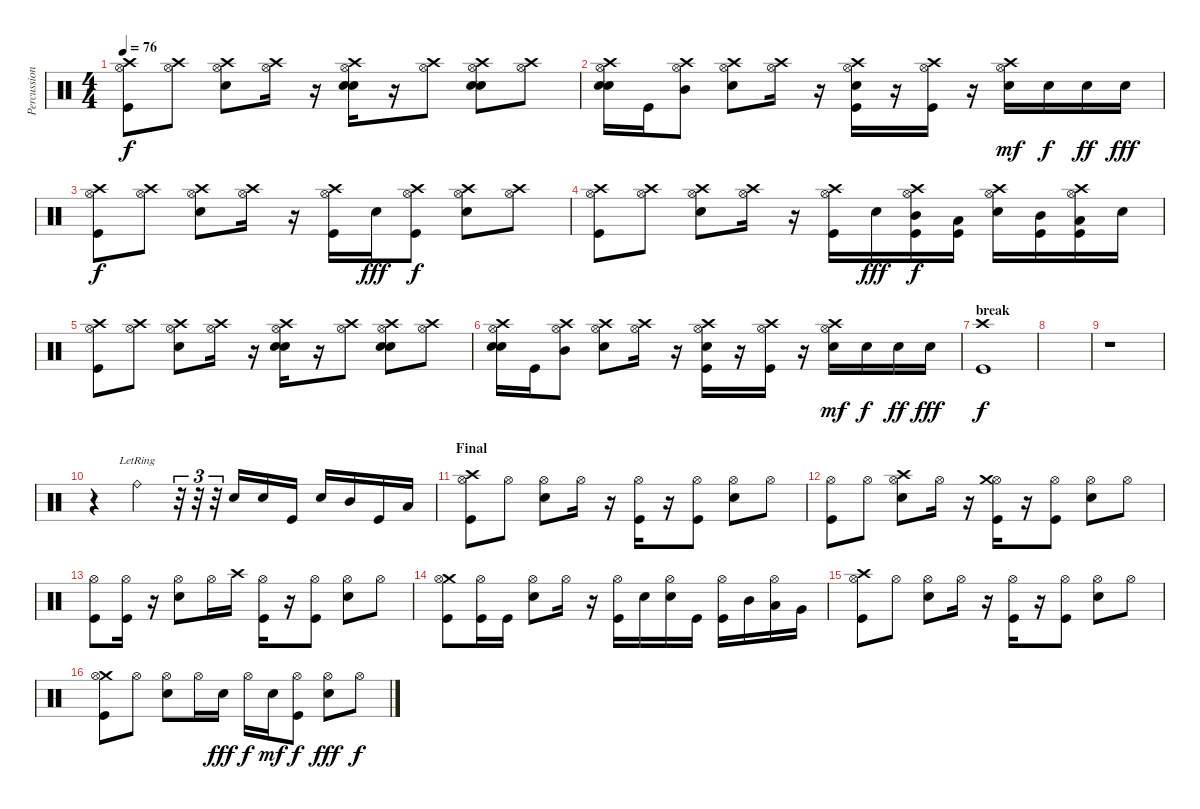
\track ("Percussions" "Percussion") {instrument percussion}
\staff {score}
\articulation defaults
\ts (4 4)
\tempo 76
\clef neutral
\ks c
("Crash high (hit)" "Hi-Hat (open)" "Kick (hit)").8{dy f} ("Crash high (hit)" "Hi-Hat (open)").8 ("Crash high (hit)" "Hi-Hat (open)" "Snare (hit) 2").8 ("Crash high (hit)" "Hi-Hat (open)").16 r.16 ("Crash high (hit)" "Hi-Hat (open)" "Snare (hit) 2" "Snare (hit) 2").16 r.16 ("Crash high (hit)" "Hi-Hat (open)").8 ("Crash high (hit)" "Hi-Hat (open)" "Snare (hit) 2" "Snare (hit) 2").8 ("Crash high (hit)" "Hi-Hat (open)").8 |
("Crash high (hit)" "Hi-Hat (open)" "Snare (hit) 2" "Snare (hit) 2").16 "Kick (hit)".16 ("Crash high (hit)" "Hi-Hat (open)" "Mid Tom (hit)").8 ("Crash high (hit)" "Hi-Hat (open)" "Snare (hit) 2").8 ("Crash high (hit)" "Hi-Hat (open)").16 r.16 ("Crash high (hit)" "Hi-Hat (open)" "Snare (hit) 2" "Kick (hit)").16 r.16 ("Crash high (hit)" "Hi-Hat (open)" "Kick (hit)").16 r.16 ("Crash high (hit)" "Hi-Hat (open)" "Snare (hit) 2").16{dy mf} "Snare (hit) 2".16{dy f} "Snare (hit) 2".16{dy ff} "Snare (hit) 2".16{dy fff} |
("Crash high (hit)" "Hi-Hat (open)" "Kick (hit)").8{dy f} ("Crash high (hit)" "Hi-Hat (open)").8 ("Crash high (hit)" "Hi-Hat (open)" "Snare (hit) 2").8 ("Crash high (hit)" "Hi-Hat (open)").16 r.16 ("Crash high (hit)" "Hi-Hat (open)" "Kick (hit)").16 "Snare (hit) 2".16{dy fff} ("Crash high (hit)" "Hi-Hat (open)" "Kick (hit)").8{dy f} ("Crash high (hit)" "Hi-Hat (open)" "Snare (hit) 2").8 ("Crash high (hit)" "Hi-Hat (open)").8 |
("Crash high (hit)" "Hi-Hat (open)" "Kick (hit)").8 ("Crash high (hit)" "Hi-Hat (open)").8 ("Crash high (hit)" "Hi-Hat (open)" "Snare (hit) 2").8 ("Crash high (hit)" "Hi-Hat (open)").16 r.16 ("Crash high (hit)" "Hi-Hat (open)" "Kick (hit)").16 "Snare (hit) 2".16{dy fff} ("Crash high (hit)" "Hi-Hat (open)" "Mid Tom (hit)" "Kick (hit)").16{dy f} ("Low Tom (hit)" "Kick (hit)").16 ("Crash high (hit)" "Hi-Hat (open)" "Snare (hit) 2").16 ("Mid Tom (hit)" "Kick (hit)").16 ("Crash high (hit)" "Hi-Hat (open)" "Low Tom (hit)" "Kick (hit)").16 "Snare (hit) 2".16 |
("Crash high (hit)" "Hi-Hat (open)" "Kick (hit)").8 ("Crash high (hit)" "Hi-Hat (open)").8 ("Crash high (hit)" "Hi-Hat (open)" "Snare (hit) 2").8 ("Crash high (hit)" "Hi-Hat (open)").16 r.16 ("Crash high (hit)" "Hi-Hat (open)" "Snare (hit) 2" "Snare (hit) 2").16 r.16 ("Crash high (hit)" "Hi-Hat (open)").8 ("Crash high (hit)" "Hi-Hat (open)" "Snare (hit) 2" "Snare (hit) 2").8 ("Crash high (hit)" "Hi-Hat (open)").8 |
("Crash high (hit)" "Hi-Hat (open)" "Snare (hit) 2" "Snare (hit) 2").16 "Kick (hit)".16 ("Crash high (hit)" "Hi-Hat (open)" "Mid Tom (hit)").8 ("Crash high (hit)" "Hi-Hat (open)" "Snare (hit) 2").8 ("Crash high (hit)" "Hi-Hat (open)").16 r.16 ("Crash high (hit)" "Hi-Hat (open)" "Snare (hit) 2" "Kick (hit)").16 r.16 ("Crash high (hit)" "Hi-Hat (open)" "Kick (hit)").16 r.16 ("Crash high (hit)" "Hi-Hat (open)" "Snare (hit) 2").16{dy mf} "Snare (hit) 2".16{dy f} "Snare (hit) 2".16{dy ff} "Snare (hit) 2".16{dy fff} |
\section ("" "break ")
("Crash high (hit)" "Kick (hit)").1{dy f} |
|
r.1 |
r.4 "Ride (bell)"{lr}.4 r.32{tu (3 2)} r.32{tu (3 2)} r.32{tu (3 2)} "Snare (hit) 2".16 "Snare (hit) 2".16 "Kick (hit)".16 "Snare (hit) 2".16 "Mid Tom (hit)".16 "Kick (hit)".16 "Low Tom (hit)".16 |
\section ("" "Final")
("Crash high (hit)" "Hi-Hat (open)" "Kick (hit)").8 "Hi-Hat (open)".8 ("Hi-Hat (open)" "Snare (hit) 2").8 "Hi-Hat (open)".16 r.16 ("Hi-Hat (open)" "Kick (hit)").16 r.16 ("Hi-Hat (open)" "Kick (hit)").8 ("Hi-Hat (open)" "Snare (hit) 2").8 "Hi-Hat (open)".8 |
("Hi-Hat (open)" "Kick (hit)").8 "Hi-Hat (open)".8 ("Hi-Hat (open)" "Crash high (hit)" "Snare (hit) 2").8 "Hi-Hat (open)".16 r.16 ("Hi-Hat (open)" "Crash medium (hit)" "Kick (hit)").16 r.16 ("Hi-Hat (open)" "Kick (hit)").8 ("Hi-Hat (open)" "Snare (hit) 2").8 "Hi-Hat (open)".8 |
("Hi-Hat (open)" "Kick (hit)").8 ("Hi-Hat (open)" "Kick (hit)").16 r.16 ("Hi-Hat (open)" "Snare (hit) 2").8 "Hi-Hat (open)".16 "Crash high (hit)".16 ("Hi-Hat (open)" "Kick (hit)").16 r.16 ("Hi-Hat (open)" "Kick (hit)").8 ("Hi-Hat (open)" "Snare (hit) 2").8 "Hi-Hat (open)".8 |
("Crash medium (hit)" "Hi-Hat (open)" "Kick (hit)").8 ("Hi-Hat (open)" "Kick (hit)").16 "Kick (hit)".16 ("Hi-Hat (open)" "Snare (hit) 2").8 "Hi-Hat (open)".16 r.16 ("Hi-Hat (open)" "Kick (hit)").16 "Snare (hit) 2".16 ("Hi-Hat (open)" "Snare (hit) 2").16 "Kick (hit)".16 ("Hi-Hat (open)" "Kick (hit)").16 "Mid Tom (hit)".16 ("Hi-Hat (open)" "Low Tom (hit)").16 "Very Low Tom (hit)".16 |
("Crash high (hit)" "Hi-Hat (open)" "Kick (hit)").8 "Hi-Hat (open)".8 ("Hi-Hat (open)" "Snare (hit) 2").8 "Hi-Hat (open)".16 r.16 ("Hi-Hat (open)" "Kick (hit)").16 r.16 ("Hi-Hat (open)" "Kick (hit)").8 ("Hi-Hat (open)" "Snare (hit) 2").8 "Hi-Hat (open)".8 |
("Crash medium (hit)" "Hi-Hat (open)" "Kick (hit)").8 "Hi-Hat (open)".8 ("Hi-Hat (open)" "Snare (hit) 2").8 "Hi-Hat (open)".16 "Snare (hit) 2".16{dy fff} "Hi-Hat (open)".16{dy f} "Snare (hit) 2".16{dy mf} ("Hi-Hat (open)" "Kick (hit)").8{dy f} ("Hi-Hat (open)" "Snare (hit) 2").8{dy fff} "Hi-Hat (open)".8{dy f}
